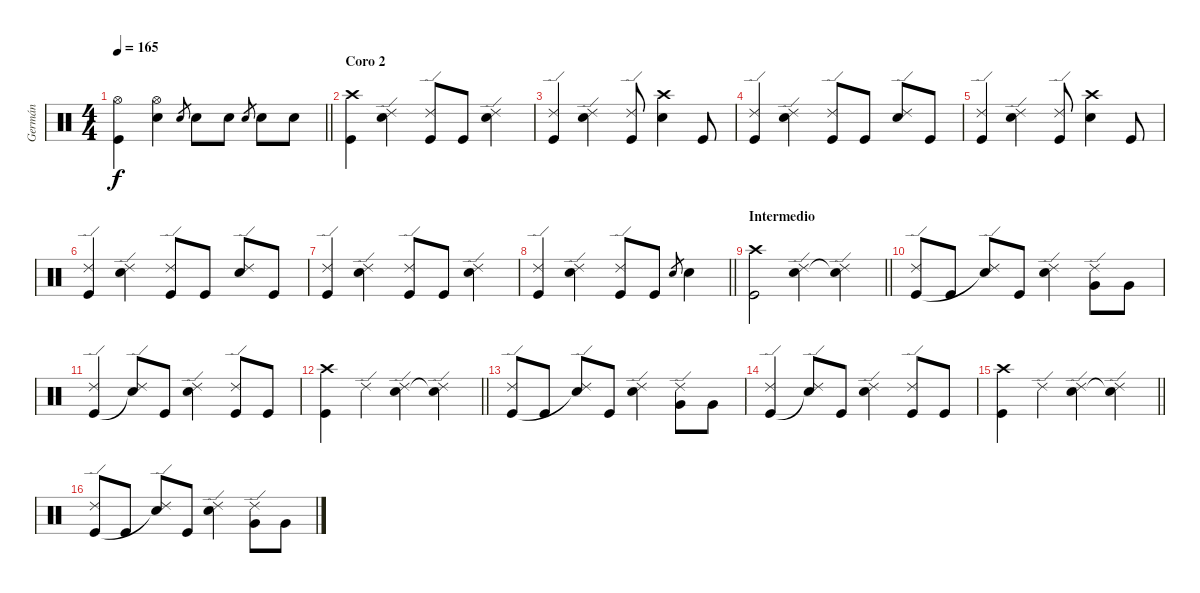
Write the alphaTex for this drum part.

\track ("Germán" "Germán") {instrument percussion}
\staff {score}
\articulation defaults
\ts (4 4)
\tempo 165
\clef neutral
\barLineRight lightlight
\ks c
("Hi-Hat (open)" "Kick (hit)").4{dy f} ("Hi-Hat (open)" "Electric Snare (hit)").4 "Electric Snare (hit)".8{gr} "Electric Snare (hit)".8 "Electric Snare (hit)".8 "Electric Snare (hit)".8{gr} "Electric Snare (hit)".8 "Electric Snare (hit)".8 |
\section ("" "Coro 2")
("Crash high (hit)" "Kick (hit)").4 ("Ride (edge) 2" "Electric Snare (hit)").4 ("Ride (edge) 2" "Kick (hit)").8 "Kick (hit)".8 ("Ride (edge) 2" "Electric Snare (hit)").4 |
("Ride (edge) 2" "Kick (hit)").4 ("Ride (edge) 2" "Electric Snare (hit)").4 ("Ride (edge) 2" "Kick (hit)").8 ("Crash high (hit)" "Electric Snare (hit)").4 "Kick (hit)".8 |
("Ride (edge) 2" "Kick (hit)").4 ("Ride (edge) 2" "Electric Snare (hit)").4 ("Ride (edge) 2" "Kick (hit)").8 "Kick (hit)".8 ("Ride (edge) 2" "Electric Snare (hit)").8 "Kick (hit)".8 |
("Ride (edge) 2" "Kick (hit)").4 ("Ride (edge) 2" "Electric Snare (hit)").4 ("Ride (edge) 2" "Kick (hit)").8 ("Crash high (hit)" "Electric Snare (hit)").4 "Kick (hit)".8 |
("Ride (edge) 2" "Kick (hit)").4 ("Ride (edge) 2" "Electric Snare (hit)").4 ("Ride (edge) 2" "Kick (hit)").8 "Kick (hit)".8 ("Ride (edge) 2" "Electric Snare (hit)").8 "Kick (hit)".8 |
("Ride (edge) 2" "Kick (hit)").4 ("Ride (edge) 2" "Electric Snare (hit)").4 ("Ride (edge) 2" "Kick (hit)").8 "Kick (hit)".8 ("Ride (edge) 2" "Electric Snare (hit)").4 |
\barLineRight lightlight
("Ride (edge) 2" "Kick (hit)").4 ("Ride (edge) 2" "Electric Snare (hit)").4 ("Ride (edge) 2" "Kick (hit)").8 "Kick (hit)".8 "Electric Snare (hit)".8{gr} "Electric Snare (hit)".4 |
\section ("" "Intermedio")
\barLineRight lightlight
("Crash high (hit)" "Kick (hit)").2 ("Ride (edge) 2" "Electric Snare (hit)").4 ("Ride (edge) 2" "Snare (hit)"{t}).4 |
("Ride (edge) 2" "Kick (hit)").8 "Kick (hit)".8 ("Ride (edge) 2" "Snare (hit)"{t}).8 "Kick (hit)".8 ("Ride (edge) 2" "Electric Snare (hit)").4 ("Ride (edge) 2" "Very Low Tom (hit)").8 "Very Low Tom (hit)".8 |
("Ride (edge) 2" "Kick (hit)").4 ("Ride (edge) 2" "Snare (hit)"{t}).8 "Kick (hit)".8 ("Ride (edge) 2" "Electric Snare (hit)").4 ("Ride (edge) 2" "Kick (hit)").8 "Kick (hit)".8 |
\barLineRight lightlight
("Crash high (hit)" "Kick (hit)").4 "Ride (edge) 2".4 ("Ride (edge) 2" "Electric Snare (hit)").4 ("Ride (edge) 2" "Snare (hit)"{t}).4 |
("Ride (edge) 2" "Kick (hit)").8 "Kick (hit)".8 ("Ride (edge) 2" "Snare (hit)"{t}).8 "Kick (hit)".8 ("Ride (edge) 2" "Electric Snare (hit)").4 ("Ride (edge) 2" "Very Low Tom (hit)").8 "Very Low Tom (hit)".8 |
("Ride (edge) 2" "Kick (hit)").4 ("Ride (edge) 2" "Snare (hit)"{t}).8 "Kick (hit)".8 ("Ride (edge) 2" "Electric Snare (hit)").4 ("Ride (edge) 2" "Kick (hit)").8 "Kick (hit)".8 |
\barLineRight lightlight
("Crash high (hit)" "Kick (hit)").4 "Ride (edge) 2".4 ("Ride (edge) 2" "Electric Snare (hit)").4 ("Ride (edge) 2" "Snare (hit)"{t}).4 |
("Ride (edge) 2" "Kick (hit)").8 "Kick (hit)".8 ("Ride (edge) 2" "Snare (hit)"{t}).8 "Kick (hit)".8 ("Ride (edge) 2" "Electric Snare (hit)").4 ("Ride (edge) 2" "Very Low Tom (hit)").8 "Very Low Tom (hit)".8
